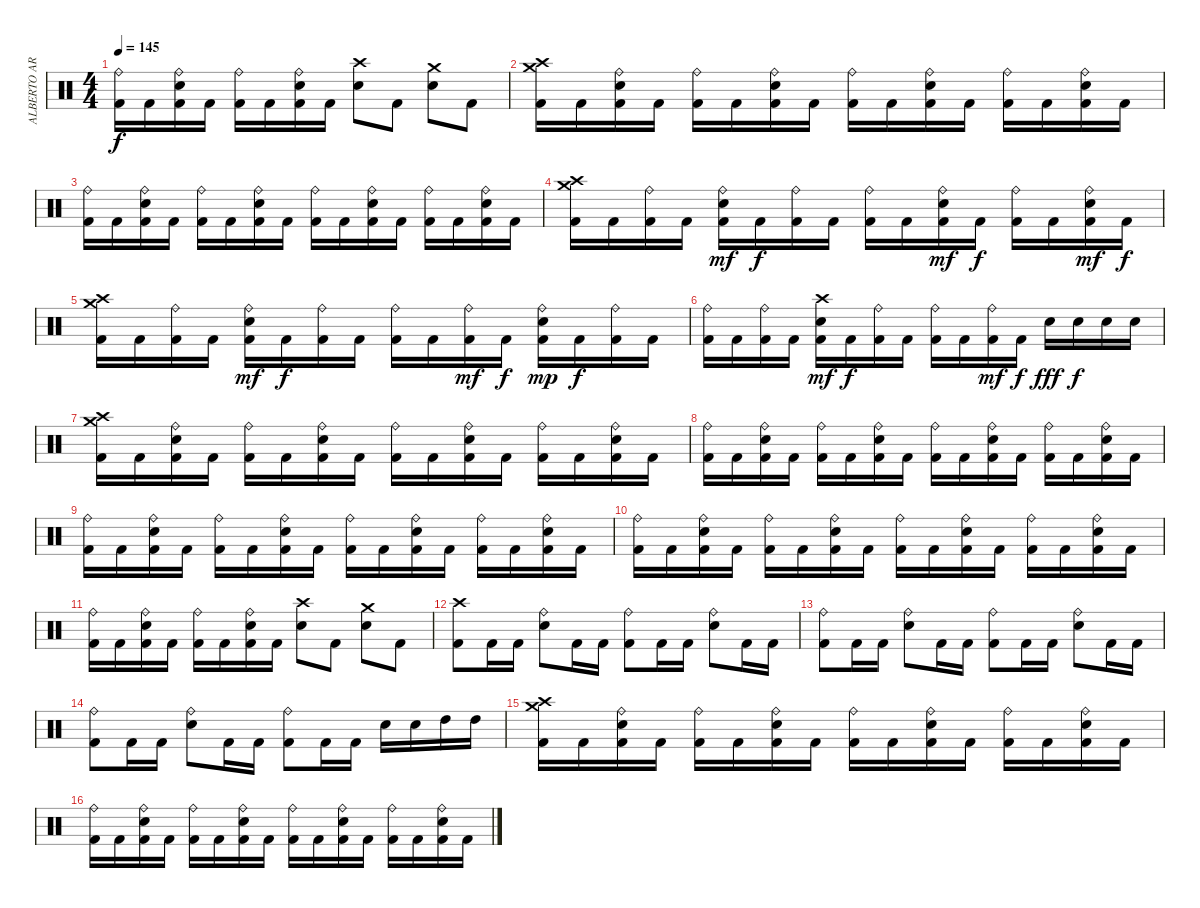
\track ("ALBERTO ARDINES" "ALBERTO AR") {instrument percussion}
\staff {score}
\articulation defaults
\ts (4 4)
\tempo 145
\clef neutral
\ks c
("Ride (bell)" "Kick (hit) 2").16{dy f} "Kick (hit) 2".16 ("Ride (bell)" "Electric Snare (hit)" "Kick (hit) 2").16 "Kick (hit) 2".16 ("Ride (bell)" "Kick (hit) 2").16 "Kick (hit) 2".16 ("Ride (bell)" "Electric Snare (hit)" "Kick (hit) 2").16 "Kick (hit) 2".16 ("Crash high (hit)" "Electric Snare (hit)").8 "Kick (hit) 2".8 ("Crash medium (hit)" "Electric Snare (hit)").8 "Kick (hit) 2".8 |
("Crash high (hit)" "Crash medium (hit)" "Kick (hit) 2").16 "Kick (hit) 2".16 ("Ride (bell)" "Electric Snare (hit)" "Kick (hit) 2").16 "Kick (hit) 2".16 ("Ride (bell)" "Kick (hit) 2").16 "Kick (hit) 2".16 ("Ride (bell)" "Electric Snare (hit)" "Kick (hit) 2").16 "Kick (hit) 2".16 ("Ride (bell)" "Kick (hit) 2").16 "Kick (hit) 2".16 ("Ride (bell)" "Electric Snare (hit)" "Kick (hit) 2").16 "Kick (hit) 2".16 ("Ride (bell)" "Kick (hit) 2").16 "Kick (hit) 2".16 ("Ride (bell)" "Electric Snare (hit)" "Kick (hit) 2").16 "Kick (hit) 2".16 |
("Ride (bell)" "Kick (hit) 2").16 "Kick (hit) 2".16 ("Ride (bell)" "Electric Snare (hit)" "Kick (hit) 2").16 "Kick (hit) 2".16 ("Ride (bell)" "Kick (hit) 2").16 "Kick (hit) 2".16 ("Ride (bell)" "Electric Snare (hit)" "Kick (hit) 2").16 "Kick (hit) 2".16 ("Ride (bell)" "Kick (hit) 2").16 "Kick (hit) 2".16 ("Ride (bell)" "Electric Snare (hit)" "Kick (hit) 2").16 "Kick (hit) 2".16 ("Ride (bell)" "Kick (hit) 2").16 "Kick (hit) 2".16 ("Ride (bell)" "Electric Snare (hit)" "Kick (hit) 2").16 "Kick (hit) 2".16 |
("Crash high (hit)" "Crash medium (hit)" "Kick (hit) 2").16 "Kick (hit) 2".16 ("Ride (bell)" "Kick (hit) 2").16 "Kick (hit) 2".16 ("Ride (bell)" "Electric Snare (hit)" "Kick (hit) 2").16{dy mf} "Kick (hit) 2".16{dy f} ("Ride (bell)" "Kick (hit) 2").16 "Kick (hit) 2".16 ("Ride (bell)" "Kick (hit) 2").16 "Kick (hit) 2".16 ("Ride (bell)" "Electric Snare (hit)" "Kick (hit) 2").16{dy mf} "Kick (hit) 2".16{dy f} ("Ride (bell)" "Kick (hit) 2").16 "Kick (hit) 2".16 ("Ride (bell)" "Electric Snare (hit)" "Kick (hit) 2").16{dy mf} "Kick (hit) 2".16{dy f} |
("Crash high (hit)" "Crash medium (hit)" "Kick (hit) 2").16 "Kick (hit) 2".16 ("Ride (bell)" "Kick (hit) 2").16 "Kick (hit) 2".16 ("Ride (bell)" "Electric Snare (hit)" "Kick (hit) 2").16{dy mf} "Kick (hit) 2".16{dy f} ("Ride (bell)" "Kick (hit) 2").16 "Kick (hit) 2".16 ("Ride (bell)" "Kick (hit) 2").16 "Kick (hit) 2".16 ("Ride (bell)" "Kick (hit) 2").16{dy mf} "Kick (hit) 2".16{dy f} ("Ride (bell)" "Electric Snare (hit)" "Kick (hit) 2").16{dy mp} "Kick (hit) 2".16{dy f} ("Ride (bell)" "Kick (hit) 2").16 "Kick (hit) 2".16 |
("Ride (bell)" "Kick (hit) 2").16 "Kick (hit) 2".16 ("Ride (bell)" "Kick (hit) 2").16 "Kick (hit) 2".16 ("Crash high (hit)" "Electric Snare (hit)" "Kick (hit) 2").16{dy mf} "Kick (hit) 2".16{dy f} ("Ride (bell)" "Kick (hit) 2").16 "Kick (hit) 2".16 ("Ride (bell)" "Kick (hit) 2").16 "Kick (hit) 2".16 ("Ride (bell)" "Kick (hit) 2").16{dy mf} "Kick (hit) 2".16{dy f} "Electric Snare (hit)".16{dy fff} "Electric Snare (hit)".16{dy f} "Electric Snare (hit)".16 "Electric Snare (hit)".16 |
("Crash high (hit)" "Crash medium (hit)" "Kick (hit) 2").16 "Kick (hit) 2".16 ("Ride (bell)" "Electric Snare (hit)" "Kick (hit) 2").16 "Kick (hit) 2".16 ("Ride (bell)" "Kick (hit) 2").16 "Kick (hit) 2".16 ("Ride (bell)" "Electric Snare (hit)" "Kick (hit) 2").16 "Kick (hit) 2".16 ("Ride (bell)" "Kick (hit) 2").16 "Kick (hit) 2".16 ("Ride (bell)" "Electric Snare (hit)" "Kick (hit) 2").16 "Kick (hit) 2".16 ("Ride (bell)" "Kick (hit) 2").16 "Kick (hit) 2".16 ("Ride (bell)" "Electric Snare (hit)" "Kick (hit) 2").16 "Kick (hit) 2".16 |
("Ride (bell)" "Kick (hit) 2").16 "Kick (hit) 2".16 ("Ride (bell)" "Electric Snare (hit)" "Kick (hit) 2").16 "Kick (hit) 2".16 ("Ride (bell)" "Kick (hit) 2").16 "Kick (hit) 2".16 ("Ride (bell)" "Electric Snare (hit)" "Kick (hit) 2").16 "Kick (hit) 2".16 ("Ride (bell)" "Kick (hit) 2").16 "Kick (hit) 2".16 ("Ride (bell)" "Electric Snare (hit)" "Kick (hit) 2").16 "Kick (hit) 2".16 ("Ride (bell)" "Kick (hit) 2").16 "Kick (hit) 2".16 ("Ride (bell)" "Electric Snare (hit)" "Kick (hit) 2").16 "Kick (hit) 2".16 |
("Ride (bell)" "Kick (hit) 2").16 "Kick (hit) 2".16 ("Ride (bell)" "Electric Snare (hit)" "Kick (hit) 2").16 "Kick (hit) 2".16 ("Ride (bell)" "Kick (hit) 2").16 "Kick (hit) 2".16 ("Ride (bell)" "Electric Snare (hit)" "Kick (hit) 2").16 "Kick (hit) 2".16 ("Ride (bell)" "Kick (hit) 2").16 "Kick (hit) 2".16 ("Ride (bell)" "Electric Snare (hit)" "Kick (hit) 2").16 "Kick (hit) 2".16 ("Ride (bell)" "Kick (hit) 2").16 "Kick (hit) 2".16 ("Ride (bell)" "Electric Snare (hit)" "Kick (hit) 2").16 "Kick (hit) 2".16 |
("Ride (bell)" "Kick (hit) 2").16 "Kick (hit) 2".16 ("Ride (bell)" "Electric Snare (hit)" "Kick (hit) 2").16 "Kick (hit) 2".16 ("Ride (bell)" "Kick (hit) 2").16 "Kick (hit) 2".16 ("Ride (bell)" "Electric Snare (hit)" "Kick (hit) 2").16 "Kick (hit) 2".16 ("Ride (bell)" "Kick (hit) 2").16 "Kick (hit) 2".16 ("Ride (bell)" "Electric Snare (hit)" "Kick (hit) 2").16 "Kick (hit) 2".16 ("Ride (bell)" "Kick (hit) 2").16 "Kick (hit) 2".16 ("Ride (bell)" "Electric Snare (hit)" "Kick (hit) 2").16 "Kick (hit) 2".16 |
("Ride (bell)" "Kick (hit) 2").16 "Kick (hit) 2".16 ("Ride (bell)" "Electric Snare (hit)" "Kick (hit) 2").16 "Kick (hit) 2".16 ("Ride (bell)" "Kick (hit) 2").16 "Kick (hit) 2".16 ("Ride (bell)" "Electric Snare (hit)" "Kick (hit) 2").16 "Kick (hit) 2".16 ("Crash high (hit)" "Electric Snare (hit)").8 "Kick (hit) 2".8 ("Crash medium (hit)" "Electric Snare (hit)").8 "Kick (hit) 2".8 |
("Crash high (hit)" "Kick (hit) 2").8 "Kick (hit) 2".16 "Kick (hit) 2".16 ("Ride (bell)" "Electric Snare (hit)").8 "Kick (hit) 2".16 "Kick (hit) 2".16 ("Ride (bell)" "Kick (hit) 2").8 "Kick (hit) 2".16 "Kick (hit) 2".16 ("Ride (bell)" "Electric Snare (hit)").8 "Kick (hit) 2".16 "Kick (hit) 2".16 |
("Ride (bell)" "Kick (hit) 2").8 "Kick (hit) 2".16 "Kick (hit) 2".16 ("Ride (bell)" "Electric Snare (hit)").8 "Kick (hit) 2".16 "Kick (hit) 2".16 ("Ride (bell)" "Kick (hit) 2").8 "Kick (hit) 2".16 "Kick (hit) 2".16 ("Ride (bell)" "Electric Snare (hit)").8 "Kick (hit) 2".16 "Kick (hit) 2".16 |
("Ride (bell)" "Kick (hit) 2").8 "Kick (hit) 2".16 "Kick (hit) 2".16 ("Ride (bell)" "Electric Snare (hit)").8 "Kick (hit) 2".16 "Kick (hit) 2".16 ("Ride (bell)" "Kick (hit) 2").8 "Kick (hit) 2".16 "Kick (hit) 2".16 "Electric Snare (hit)".16 "Electric Snare (hit)".16 "High Tom (hit)".16 "High Tom (hit)".16 |
("Crash high (hit)" "Crash medium (hit)" "Kick (hit) 2").16 "Kick (hit) 2".16 ("Ride (bell)" "Electric Snare (hit)" "Kick (hit) 2").16 "Kick (hit) 2".16 ("Ride (bell)" "Kick (hit) 2").16 "Kick (hit) 2".16 ("Ride (bell)" "Electric Snare (hit)" "Kick (hit) 2").16 "Kick (hit) 2".16 ("Ride (bell)" "Kick (hit) 2").16 "Kick (hit) 2".16 ("Ride (bell)" "Electric Snare (hit)" "Kick (hit) 2").16 "Kick (hit) 2".16 ("Ride (bell)" "Kick (hit) 2").16 "Kick (hit) 2".16 ("Ride (bell)" "Electric Snare (hit)" "Kick (hit) 2").16 "Kick (hit) 2".16 |
("Ride (bell)" "Kick (hit) 2").16 "Kick (hit) 2".16 ("Ride (bell)" "Electric Snare (hit)" "Kick (hit) 2").16 "Kick (hit) 2".16 ("Ride (bell)" "Kick (hit) 2").16 "Kick (hit) 2".16 ("Ride (bell)" "Electric Snare (hit)" "Kick (hit) 2").16 "Kick (hit) 2".16 ("Ride (bell)" "Kick (hit) 2").16 "Kick (hit) 2".16 ("Ride (bell)" "Electric Snare (hit)" "Kick (hit) 2").16 "Kick (hit) 2".16 ("Ride (bell)" "Kick (hit) 2").16 "Kick (hit) 2".16 ("Ride (bell)" "Electric Snare (hit)" "Kick (hit) 2").16 "Kick (hit) 2".16
